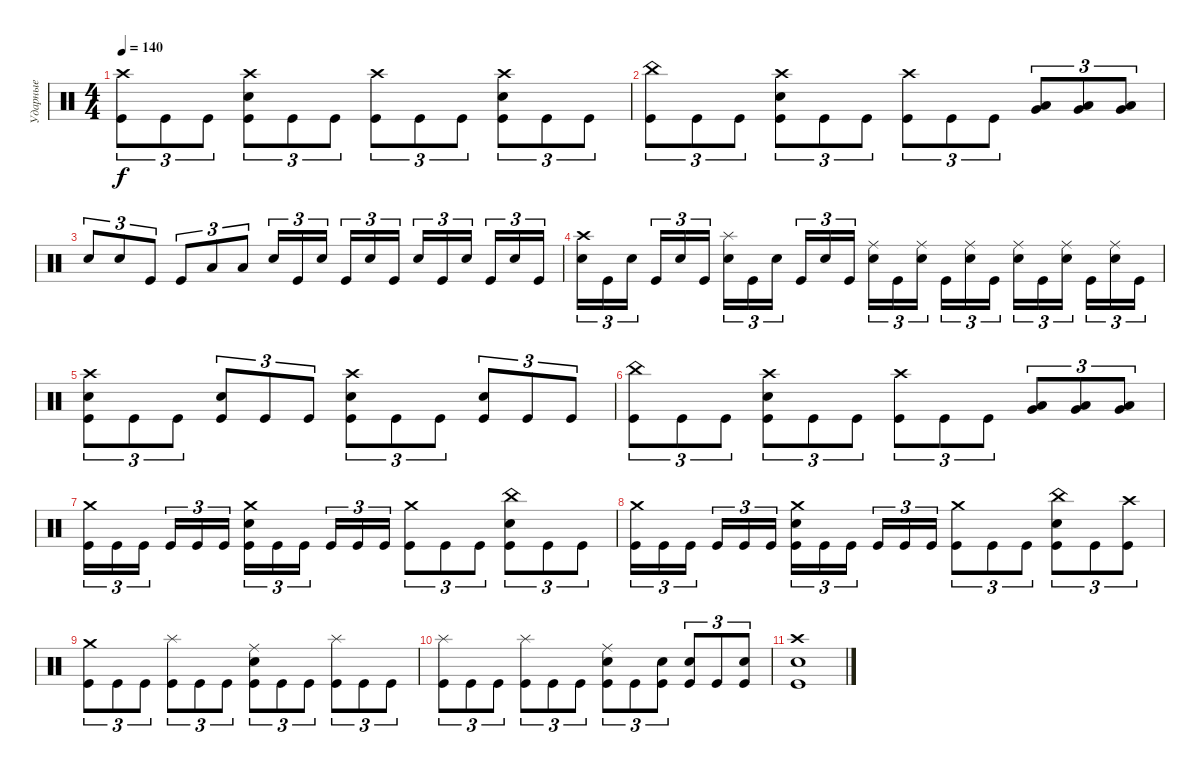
\track ("Ударные" "Ударные") {instrument percussion}
\staff {score}
\articulation defaults
\ts (4 4)
\tempo 140
\clef neutral
\ks c
("Crash high (hit)" "Kick (hit)").8{tu (3 2) dy f} "Kick (hit)".8{tu (3 2)} "Kick (hit)".8{tu (3 2)} ("Crash high (hit)" "Electric Snare (hit)" "Kick (hit)").8{tu (3 2)} "Kick (hit)".8{tu (3 2)} "Kick (hit)".8{tu (3 2)} ("Crash high (hit)" "Kick (hit)").8{tu (3 2)} "Kick (hit)".8{tu (3 2)} "Kick (hit)".8{tu (3 2)} ("Crash high (hit)" "Electric Snare (hit)" "Kick (hit)").8{tu (3 2)} "Kick (hit)".8{tu (3 2)} "Kick (hit)".8{tu (3 2)} |
("China (hit)" "Kick (hit)").8{tu (3 2)} "Kick (hit)".8{tu (3 2)} "Kick (hit)".8{tu (3 2)} ("Crash high (hit)" "Electric Snare (hit)" "Kick (hit)").8{tu (3 2)} "Kick (hit)".8{tu (3 2)} "Kick (hit)".8{tu (3 2)} ("Crash high (hit)" "Kick (hit)").8{tu (3 2)} "Kick (hit)".8{tu (3 2)} "Kick (hit)".8{tu (3 2)} ("Low Tom (hit)" "Very Low Tom (hit)").8{tu (3 2)} ("Low Tom (hit)" "Very Low Tom (hit)").8{tu (3 2)} ("Low Tom (hit)" "Very Low Tom (hit)").8{tu (3 2)} |
"Electric Snare (hit)".8{tu (3 2)} "Electric Snare (hit)".8{tu (3 2)} "Kick (hit)".8{tu (3 2)} "Kick (hit)".8{tu (3 2)} "Low Tom (hit)".8{tu (3 2)} "Low Tom (hit)".8{tu (3 2)} "Electric Snare (hit)".16{tu (3 2)} "Kick (hit)".16{tu (3 2)} "Electric Snare (hit)".16{tu (3 2) beam splitsecondary} "Kick (hit)".16{tu (3 2)} "Electric Snare (hit)".16{tu (3 2)} "Kick (hit)".16{tu (3 2)} "Electric Snare (hit)".16{tu (3 2)} "Kick (hit)".16{tu (3 2)} "Electric Snare (hit)".16{tu (3 2) beam splitsecondary} "Kick (hit)".16{tu (3 2)} "Electric Snare (hit)".16{tu (3 2)} "Kick (hit)".16{tu (3 2)} |
("Crash high (hit)" "Electric Snare (hit)").16{tu (3 2)} "Kick (hit)".16{tu (3 2)} "Electric Snare (hit)".16{tu (3 2) beam splitsecondary} "Kick (hit)".16{tu (3 2)} "Electric Snare (hit)".16{tu (3 2)} "Kick (hit)".16{tu (3 2)} ("Splash (hit)" "Electric Snare (hit)").16{tu (3 2)} "Kick (hit)".16{tu (3 2)} "Electric Snare (hit)".16{tu (3 2) beam splitsecondary} "Kick (hit)".16{tu (3 2)} "Electric Snare (hit)".16{tu (3 2)} "Kick (hit)".16{tu (3 2)} ("Ride (middle)" "Electric Snare (hit)").16{tu (3 2)} "Kick (hit)".16{tu (3 2)} ("Ride (middle)" "Electric Snare (hit)").16{tu (3 2) beam splitsecondary} "Kick (hit)".16{tu (3 2)} ("Ride (middle)" "Electric Snare (hit)").16{tu (3 2)} "Kick (hit)".16{tu (3 2)} ("Ride (middle)" "Electric Snare (hit)").16{tu (3 2)} "Kick (hit)".16{tu (3 2)} ("Ride (middle)" "Electric Snare (hit)").16{tu (3 2) beam splitsecondary} "Kick (hit)".16{tu (3 2)} ("Ride (middle)" "Electric Snare (hit)").16{tu (3 2)} "Kick (hit)".16{tu (3 2)} |
("Crash high (hit)" "Electric Snare (hit)" "Kick (hit)").8{tu (3 2)} "Kick (hit)".8{tu (3 2)} "Kick (hit)".8{tu (3 2)} ("Electric Snare (hit)" "Kick (hit)").8{tu (3 2)} "Kick (hit)".8{tu (3 2)} "Kick (hit)".8{tu (3 2)} ("Crash high (hit)" "Electric Snare (hit)" "Kick (hit)").8{tu (3 2)} "Kick (hit)".8{tu (3 2)} "Kick (hit)".8{tu (3 2)} ("Electric Snare (hit)" "Kick (hit)").8{tu (3 2)} "Kick (hit)".8{tu (3 2)} "Kick (hit)".8{tu (3 2)} |
("China (hit)" "Kick (hit)").8{tu (3 2)} "Kick (hit)".8{tu (3 2)} "Kick (hit)".8{tu (3 2)} ("Crash high (hit)" "Electric Snare (hit)" "Kick (hit)").8{tu (3 2)} "Kick (hit)".8{tu (3 2)} "Kick (hit)".8{tu (3 2)} ("Crash high (hit)" "Kick (hit)").8{tu (3 2)} "Kick (hit)".8{tu (3 2)} "Kick (hit)".8{tu (3 2)} ("Low Tom (hit)" "Very Low Tom (hit)").8{tu (3 2)} ("Low Tom (hit)" "Very Low Tom (hit)").8{tu (3 2)} ("Low Tom (hit)" "Very Low Tom (hit)").8{tu (3 2)} |
("Crash medium (hit)" "Kick (hit)").16{tu (3 2)} "Kick (hit)".16{tu (3 2)} "Kick (hit)".16{tu (3 2) beam splitsecondary} "Kick (hit)".16{tu (3 2)} "Kick (hit)".16{tu (3 2)} "Kick (hit)".16{tu (3 2)} ("Crash medium (hit)" "Electric Snare (hit)" "Kick (hit)").16{tu (3 2)} "Kick (hit)".16{tu (3 2)} "Kick (hit)".16{tu (3 2) beam splitsecondary} "Kick (hit)".16{tu (3 2)} "Kick (hit)".16{tu (3 2)} "Kick (hit)".16{tu (3 2)} ("Crash medium (hit)" "Kick (hit)").8{tu (3 2)} "Kick (hit)".8{tu (3 2)} "Kick (hit)".8{tu (3 2)} ("China (hit)" "Electric Snare (hit)" "Kick (hit)").8{tu (3 2)} "Kick (hit)".8{tu (3 2)} "Kick (hit)".8{tu (3 2)} |
("Crash medium (hit)" "Kick (hit)").16{tu (3 2)} "Kick (hit)".16{tu (3 2)} "Kick (hit)".16{tu (3 2) beam splitsecondary} "Kick (hit)".16{tu (3 2)} "Kick (hit)".16{tu (3 2)} "Kick (hit)".16{tu (3 2)} ("Crash medium (hit)" "Electric Snare (hit)" "Kick (hit)").16{tu (3 2)} "Kick (hit)".16{tu (3 2)} "Kick (hit)".16{tu (3 2) beam splitsecondary} "Kick (hit)".16{tu (3 2)} "Kick (hit)".16{tu (3 2)} "Kick (hit)".16{tu (3 2)} ("Crash medium (hit)" "Kick (hit)").8{tu (3 2)} "Kick (hit)".8{tu (3 2)} "Kick (hit)".8{tu (3 2)} ("China (hit)" "Electric Snare (hit)" "Kick (hit)").8{tu (3 2)} "Kick (hit)".8{tu (3 2)} ("Crash high (hit)" "Kick (hit)").8{tu (3 2)} |
("Crash medium (hit)" "Kick (hit)").8{tu (3 2)} "Kick (hit)".8{tu (3 2)} "Kick (hit)".8{tu (3 2)} ("Splash (hit)" "Kick (hit)").8{tu (3 2)} "Kick (hit)".8{tu (3 2)} "Kick (hit)".8{tu (3 2)} ("Ride (middle)" "Electric Snare (hit)" "Kick (hit)").8{tu (3 2)} "Kick (hit)".8{tu (3 2)} "Kick (hit)".8{tu (3 2)} ("Splash (hit)" "Kick (hit)").8{tu (3 2)} "Kick (hit)".8{tu (3 2)} "Kick (hit)".8{tu (3 2)} |
("Splash (hit)" "Kick (hit)").8{tu (3 2)} "Kick (hit)".8{tu (3 2)} "Kick (hit)".8{tu (3 2)} ("Splash (hit)" "Kick (hit)").8{tu (3 2)} "Kick (hit)".8{tu (3 2)} "Kick (hit)".8{tu (3 2)} ("Ride (middle)" "Electric Snare (hit)" "Kick (hit)").8{tu (3 2)} "Kick (hit)".8{tu (3 2)} ("Electric Snare (hit)" "Kick (hit)").8{tu (3 2)} ("Electric Snare (hit)" "Kick (hit)").8{tu (3 2)} "Kick (hit)".8{tu (3 2)} ("Electric Snare (hit)" "Kick (hit)").8{tu (3 2)} |
("Crash high (hit)" "Electric Snare (hit)" "Kick (hit)").1
